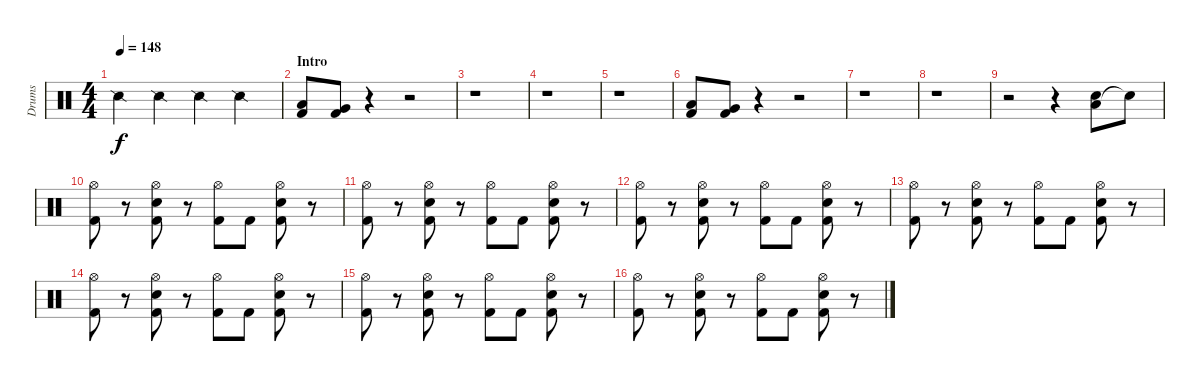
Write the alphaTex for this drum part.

\track ("Drums" "Drums") {instrument percussion}
\staff {score}
\articulation defaults
\ts (4 4)
\tempo 148
\clef neutral
\ks c "Snare (side stick) 2".4{dy f} "Snare (side stick) 2".4 "Snare (side stick) 2".4 "Snare (side stick) 2".4
|
\section ("" "Intro")
("Kick (hit) 2" "Low Tom (hit)").8 ("Kick (hit) 2" "Very Low Tom (hit)").8 r.4 r.2 |
r.1 |
r.1 |
r.1 |
("Kick (hit) 2" "Low Tom (hit)").8 ("Kick (hit) 2" "Very Low Tom (hit)").8 r.4 r.2 |
r.1 |
r.1 |
r.2 r.4 ("Low Tom (hit)" "Electric Snare (hit)").8 "Snare (hit)"{t}.8 |
("Kick (hit) 2" "Hi-Hat (open)").8 r.8 ("Kick (hit) 2" "Electric Snare (hit)" "Hi-Hat (open)").8 r.8 ("Kick (hit) 2" "Hi-Hat (open)").8 "Kick (hit) 2".8 ("Kick (hit) 2" "Electric Snare (hit)" "Hi-Hat (open)").8 r.8 |
("Kick (hit) 2" "Hi-Hat (open)").8 r.8 ("Kick (hit) 2" "Electric Snare (hit)" "Hi-Hat (open)").8 r.8 ("Kick (hit) 2" "Hi-Hat (open)").8 "Kick (hit) 2".8 ("Kick (hit) 2" "Electric Snare (hit)" "Hi-Hat (open)").8 r.8 |
("Kick (hit) 2" "Hi-Hat (open)").8 r.8 ("Kick (hit) 2" "Electric Snare (hit)" "Hi-Hat (open)").8 r.8 ("Kick (hit) 2" "Hi-Hat (open)").8 "Kick (hit) 2".8 ("Kick (hit) 2" "Electric Snare (hit)" "Hi-Hat (open)").8 r.8 |
("Kick (hit) 2" "Hi-Hat (open)").8 r.8 ("Kick (hit) 2" "Electric Snare (hit)" "Hi-Hat (open)").8 r.8 ("Kick (hit) 2" "Hi-Hat (open)").8 "Kick (hit) 2".8 ("Kick (hit) 2" "Electric Snare (hit)" "Hi-Hat (open)").8 r.8 |
("Kick (hit) 2" "Hi-Hat (open)").8 r.8 ("Kick (hit) 2" "Electric Snare (hit)" "Hi-Hat (open)").8 r.8 ("Kick (hit) 2" "Hi-Hat (open)").8 "Kick (hit) 2".8 ("Kick (hit) 2" "Electric Snare (hit)" "Hi-Hat (open)").8 r.8 |
("Kick (hit) 2" "Hi-Hat (open)").8 r.8 ("Kick (hit) 2" "Electric Snare (hit)" "Hi-Hat (open)").8 r.8 ("Kick (hit) 2" "Hi-Hat (open)").8 "Kick (hit) 2".8 ("Kick (hit) 2" "Electric Snare (hit)" "Hi-Hat (open)").8 r.8 |
("Kick (hit) 2" "Hi-Hat (open)").8 r.8 ("Kick (hit) 2" "Electric Snare (hit)" "Hi-Hat (open)").8 r.8 ("Kick (hit) 2" "Hi-Hat (open)").8 "Kick (hit) 2".8 ("Kick (hit) 2" "Electric Snare (hit)" "Hi-Hat (open)").8 r.8
